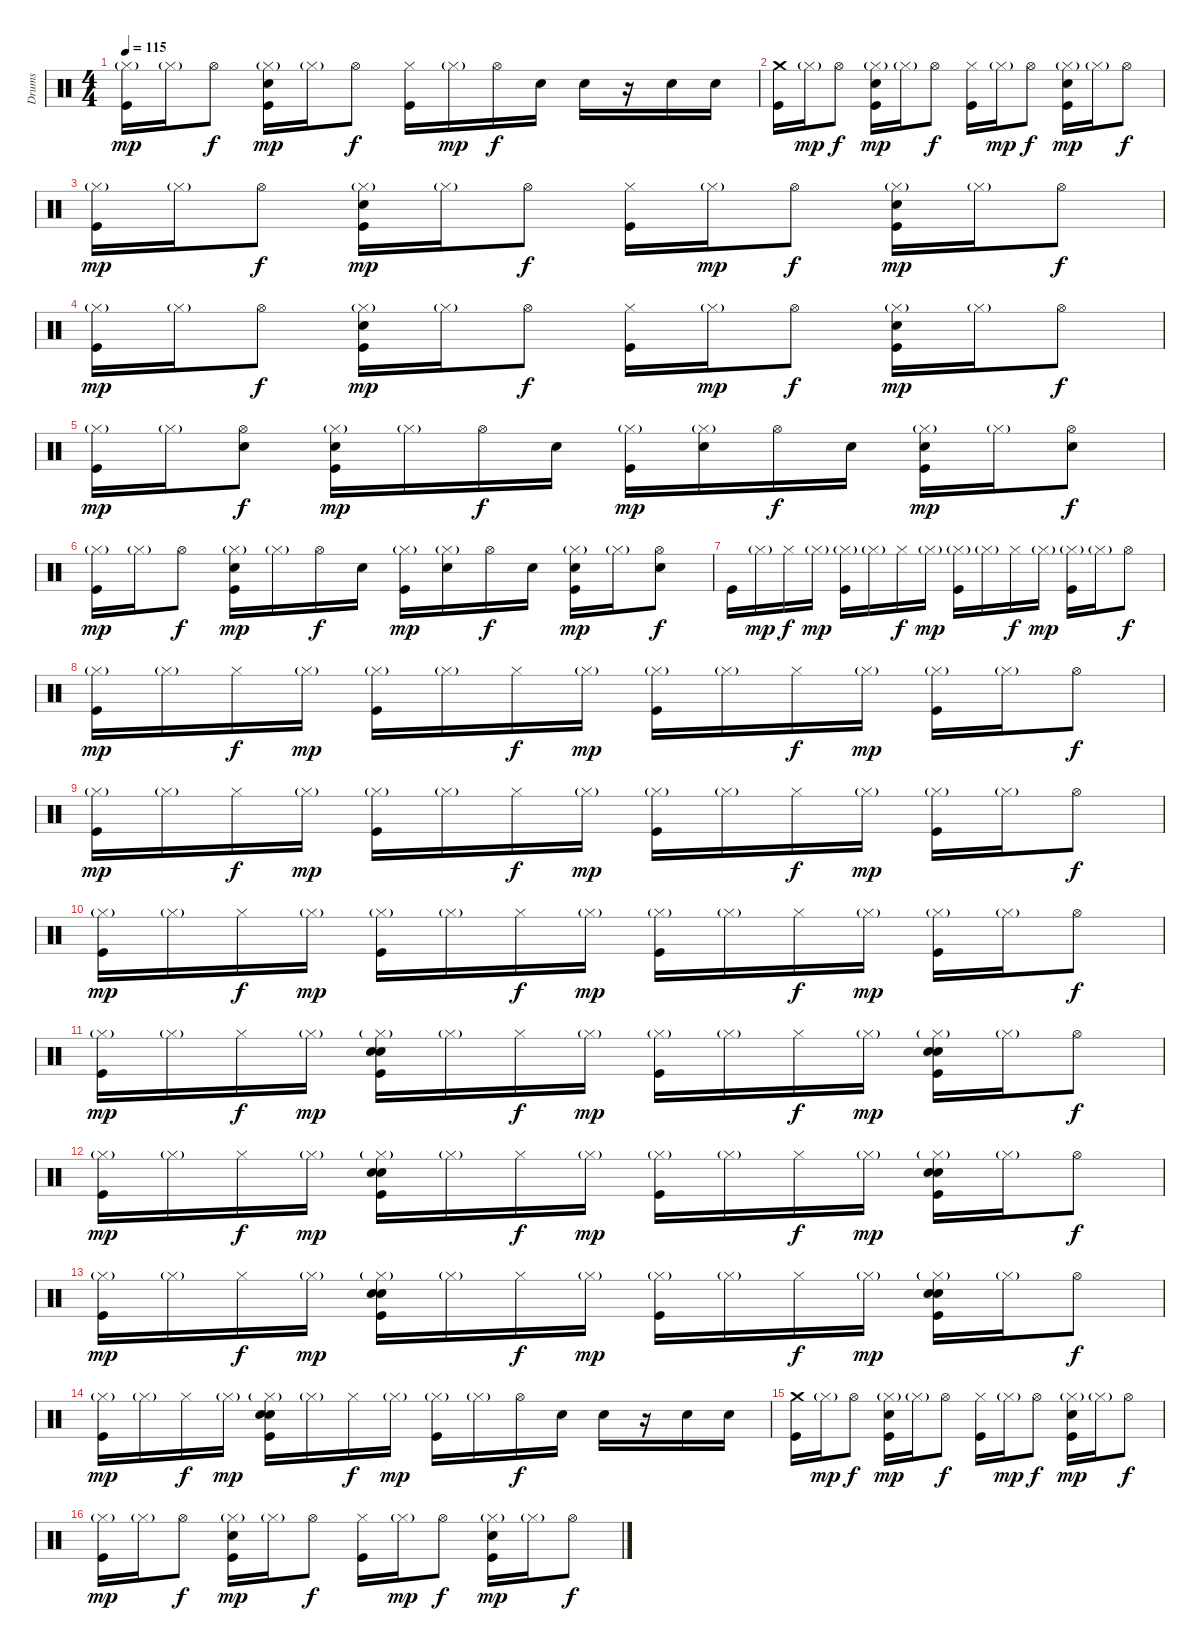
\track ("Drums" "Drums") {instrument percussion}
\staff {score}
\articulation defaults
\ts (4 4)
\tempo 115
\clef neutral
\ks c
("Hi-Hat (closed)"{g} "Kick (hit)").16{dy mp} "Hi-Hat (closed)"{g}.16 "Hi-Hat (open)".8{dy f} ("Hi-Hat (closed)"{g} "Electric Snare (hit)" "Kick (hit)").16{dy mp} "Hi-Hat (closed)"{g}.16 "Hi-Hat (open)".8{dy f} ("Hi-Hat (closed)" "Kick (hit)").16 "Hi-Hat (closed)"{g}.16{dy mp} "Hi-Hat (open)".16{dy f} "Electric Snare (hit)".16 "Electric Snare (hit)".16 r.16 "Electric Snare (hit)".16 "Electric Snare (hit)".16 |
("Crash medium (hit)" "Kick (hit)").16 "Hi-Hat (closed)"{g}.16{dy mp} "Hi-Hat (open)".8{dy f} ("Hi-Hat (closed)"{g} "Electric Snare (hit)" "Kick (hit)").16{dy mp} "Hi-Hat (closed)"{g}.16 "Hi-Hat (open)".8{dy f} ("Hi-Hat (closed)" "Kick (hit)").16 "Hi-Hat (closed)"{g}.16{dy mp} "Hi-Hat (open)".8{dy f} ("Hi-Hat (closed)"{g} "Electric Snare (hit)" "Kick (hit)").16{dy mp} "Hi-Hat (closed)"{g}.16 "Hi-Hat (open)".8{dy f} |
("Hi-Hat (closed)"{g} "Kick (hit)").16{dy mp} "Hi-Hat (closed)"{g}.16 "Hi-Hat (open)".8{dy f} ("Hi-Hat (closed)"{g} "Electric Snare (hit)" "Kick (hit)").16{dy mp} "Hi-Hat (closed)"{g}.16 "Hi-Hat (open)".8{dy f} ("Hi-Hat (closed)" "Kick (hit)").16 "Hi-Hat (closed)"{g}.16{dy mp} "Hi-Hat (open)".8{dy f} ("Hi-Hat (closed)"{g} "Electric Snare (hit)" "Kick (hit)").16{dy mp} "Hi-Hat (closed)"{g}.16 "Hi-Hat (open)".8{dy f} |
("Hi-Hat (closed)"{g} "Kick (hit)").16{dy mp} "Hi-Hat (closed)"{g}.16 "Hi-Hat (open)".8{dy f} ("Hi-Hat (closed)"{g} "Electric Snare (hit)" "Kick (hit)").16{dy mp} "Hi-Hat (closed)"{g}.16 "Hi-Hat (open)".8{dy f} ("Hi-Hat (closed)" "Kick (hit)").16 "Hi-Hat (closed)"{g}.16{dy mp} "Hi-Hat (open)".8{dy f} ("Hi-Hat (closed)"{g} "Electric Snare (hit)" "Kick (hit)").16{dy mp} "Hi-Hat (closed)"{g}.16 "Hi-Hat (open)".8{dy f} |
("Hi-Hat (closed)"{g} "Kick (hit)").16{dy mp} "Hi-Hat (closed)"{g}.16 ("Hi-Hat (open)" "Electric Snare (hit)").8{dy f} ("Hi-Hat (closed)"{g} "Electric Snare (hit)" "Kick (hit)").16{dy mp} "Hi-Hat (closed)"{g}.16 "Hi-Hat (open)".16{dy f} "Electric Snare (hit)".16 ("Hi-Hat (closed)"{g} "Kick (hit)").16{dy mp} ("Hi-Hat (closed)"{g} "Electric Snare (hit)").16 "Hi-Hat (open)".16{dy f} "Electric Snare (hit)".16 ("Hi-Hat (closed)"{g} "Electric Snare (hit)" "Kick (hit)").16{dy mp} "Hi-Hat (closed)"{g}.16 ("Hi-Hat (open)" "Electric Snare (hit)").8{dy f} |
("Hi-Hat (closed)"{g} "Kick (hit)").16{dy mp} "Hi-Hat (closed)"{g}.16 "Hi-Hat (open)".8{dy f} ("Hi-Hat (closed)"{g} "Electric Snare (hit)" "Kick (hit)").16{dy mp} "Hi-Hat (closed)"{g}.16 "Hi-Hat (open)".16{dy f} "Electric Snare (hit)".16 ("Hi-Hat (closed)"{g} "Kick (hit)").16{dy mp} ("Hi-Hat (closed)"{g} "Electric Snare (hit)").16 "Hi-Hat (open)".16{dy f} "Electric Snare (hit)".16 ("Hi-Hat (closed)"{g} "Electric Snare (hit)" "Kick (hit)").16{dy mp} "Hi-Hat (closed)"{g}.16 ("Hi-Hat (open)" "Electric Snare (hit)").8{dy f} |
"Kick (hit)".16 "Hi-Hat (closed)"{g}.16{dy mp} "Hi-Hat (closed)".16{dy f} "Hi-Hat (closed)"{g}.16{dy mp} ("Hi-Hat (closed)"{g} "Kick (hit)").16 "Hi-Hat (closed)"{g}.16 "Hi-Hat (closed)".16{dy f} "Hi-Hat (closed)"{g}.16{dy mp} ("Hi-Hat (closed)"{g} "Kick (hit)").16 "Hi-Hat (closed)"{g}.16 "Hi-Hat (closed)".16{dy f} "Hi-Hat (closed)"{g}.16{dy mp} ("Hi-Hat (closed)"{g} "Kick (hit)").16 "Hi-Hat (closed)"{g}.16 "Hi-Hat (open)".8{dy f} |
("Hi-Hat (closed)"{g} "Kick (hit)").16{dy mp} "Hi-Hat (closed)"{g}.16 "Hi-Hat (closed)".16{dy f} "Hi-Hat (closed)"{g}.16{dy mp} ("Hi-Hat (closed)"{g} "Kick (hit)").16 "Hi-Hat (closed)"{g}.16 "Hi-Hat (closed)".16{dy f} "Hi-Hat (closed)"{g}.16{dy mp} ("Hi-Hat (closed)"{g} "Kick (hit)").16 "Hi-Hat (closed)"{g}.16 "Hi-Hat (closed)".16{dy f} "Hi-Hat (closed)"{g}.16{dy mp} ("Hi-Hat (closed)"{g} "Kick (hit)").16 "Hi-Hat (closed)"{g}.16 "Hi-Hat (open)".8{dy f} |
("Hi-Hat (closed)"{g} "Kick (hit)").16{dy mp} "Hi-Hat (closed)"{g}.16 "Hi-Hat (closed)".16{dy f} "Hi-Hat (closed)"{g}.16{dy mp} ("Hi-Hat (closed)"{g} "Kick (hit)").16 "Hi-Hat (closed)"{g}.16 "Hi-Hat (closed)".16{dy f} "Hi-Hat (closed)"{g}.16{dy mp} ("Hi-Hat (closed)"{g} "Kick (hit)").16 "Hi-Hat (closed)"{g}.16 "Hi-Hat (closed)".16{dy f} "Hi-Hat (closed)"{g}.16{dy mp} ("Hi-Hat (closed)"{g} "Kick (hit)").16 "Hi-Hat (closed)"{g}.16 "Hi-Hat (open)".8{dy f} |
("Hi-Hat (closed)"{g} "Kick (hit)").16{dy mp} "Hi-Hat (closed)"{g}.16 "Hi-Hat (closed)".16{dy f} "Hi-Hat (closed)"{g}.16{dy mp} ("Hi-Hat (closed)"{g} "Kick (hit)").16 "Hi-Hat (closed)"{g}.16 "Hi-Hat (closed)".16{dy f} "Hi-Hat (closed)"{g}.16{dy mp} ("Hi-Hat (closed)"{g} "Kick (hit)").16 "Hi-Hat (closed)"{g}.16 "Hi-Hat (closed)".16{dy f} "Hi-Hat (closed)"{g}.16{dy mp} ("Hi-Hat (closed)"{g} "Kick (hit)").16 "Hi-Hat (closed)"{g}.16 "Hi-Hat (open)".8{dy f} |
("Hi-Hat (closed)"{g} "Kick (hit)").16{dy mp} "Hi-Hat (closed)"{g}.16 "Hi-Hat (closed)".16{dy f} "Hi-Hat (closed)"{g}.16{dy mp} ("Hand Clap (hit)" "Hi-Hat (closed)"{g} "Electric Snare (hit)" "Kick (hit)").16 "Hi-Hat (closed)"{g}.16 "Hi-Hat (closed)".16{dy f} "Hi-Hat (closed)"{g}.16{dy mp} ("Hi-Hat (closed)"{g} "Kick (hit)").16 "Hi-Hat (closed)"{g}.16 "Hi-Hat (closed)".16{dy f} "Hi-Hat (closed)"{g}.16{dy mp} ("Hand Clap (hit)" "Hi-Hat (closed)"{g} "Electric Snare (hit)" "Kick (hit)").16 "Hi-Hat (closed)"{g}.16 "Hi-Hat (open)".8{dy f} |
("Hi-Hat (closed)"{g} "Kick (hit)").16{dy mp} "Hi-Hat (closed)"{g}.16 "Hi-Hat (closed)".16{dy f} "Hi-Hat (closed)"{g}.16{dy mp} ("Hand Clap (hit)" "Hi-Hat (closed)"{g} "Electric Snare (hit)" "Kick (hit)").16 "Hi-Hat (closed)"{g}.16 "Hi-Hat (closed)".16{dy f} "Hi-Hat (closed)"{g}.16{dy mp} ("Hi-Hat (closed)"{g} "Kick (hit)").16 "Hi-Hat (closed)"{g}.16 "Hi-Hat (closed)".16{dy f} "Hi-Hat (closed)"{g}.16{dy mp} ("Hand Clap (hit)" "Hi-Hat (closed)"{g} "Electric Snare (hit)" "Kick (hit)").16 "Hi-Hat (closed)"{g}.16 "Hi-Hat (open)".8{dy f} |
("Hi-Hat (closed)"{g} "Kick (hit)").16{dy mp} "Hi-Hat (closed)"{g}.16 "Hi-Hat (closed)".16{dy f} "Hi-Hat (closed)"{g}.16{dy mp} ("Hand Clap (hit)" "Hi-Hat (closed)"{g} "Electric Snare (hit)" "Kick (hit)").16 "Hi-Hat (closed)"{g}.16 "Hi-Hat (closed)".16{dy f} "Hi-Hat (closed)"{g}.16{dy mp} ("Hi-Hat (closed)"{g} "Kick (hit)").16 "Hi-Hat (closed)"{g}.16 "Hi-Hat (closed)".16{dy f} "Hi-Hat (closed)"{g}.16{dy mp} ("Hand Clap (hit)" "Hi-Hat (closed)"{g} "Electric Snare (hit)" "Kick (hit)").16 "Hi-Hat (closed)"{g}.16 "Hi-Hat (open)".8{dy f} |
("Hi-Hat (closed)"{g} "Kick (hit)").16{dy mp} "Hi-Hat (closed)"{g}.16 "Hi-Hat (closed)".16{dy f} "Hi-Hat (closed)"{g}.16{dy mp} ("Hand Clap (hit)" "Hi-Hat (closed)"{g} "Electric Snare (hit)" "Kick (hit)").16 "Hi-Hat (closed)"{g}.16 "Hi-Hat (closed)".16{dy f} "Hi-Hat (closed)"{g}.16{dy mp} ("Hi-Hat (closed)"{g} "Kick (hit)").16 "Hi-Hat (closed)"{g}.16 "Hi-Hat (open)".16{dy f} "Electric Snare (hit)".16 "Electric Snare (hit)".16 r.16 "Electric Snare (hit)".16 "Electric Snare (hit)".16 |
("Crash medium (hit)" "Kick (hit)").16 "Hi-Hat (closed)"{g}.16{dy mp} "Hi-Hat (open)".8{dy f} ("Hi-Hat (closed)"{g} "Electric Snare (hit)" "Kick (hit)").16{dy mp} "Hi-Hat (closed)"{g}.16 "Hi-Hat (open)".8{dy f} ("Hi-Hat (closed)" "Kick (hit)").16 "Hi-Hat (closed)"{g}.16{dy mp} "Hi-Hat (open)".8{dy f} ("Hi-Hat (closed)"{g} "Electric Snare (hit)" "Kick (hit)").16{dy mp} "Hi-Hat (closed)"{g}.16 "Hi-Hat (open)".8{dy f} |
("Hi-Hat (closed)"{g} "Kick (hit)").16{dy mp} "Hi-Hat (closed)"{g}.16 "Hi-Hat (open)".8{dy f} ("Hi-Hat (closed)"{g} "Electric Snare (hit)" "Kick (hit)").16{dy mp} "Hi-Hat (closed)"{g}.16 "Hi-Hat (open)".8{dy f} ("Hi-Hat (closed)" "Kick (hit)").16 "Hi-Hat (closed)"{g}.16{dy mp} "Hi-Hat (open)".8{dy f} ("Hi-Hat (closed)"{g} "Electric Snare (hit)" "Kick (hit)").16{dy mp} "Hi-Hat (closed)"{g}.16 "Hi-Hat (open)".8{dy f}
